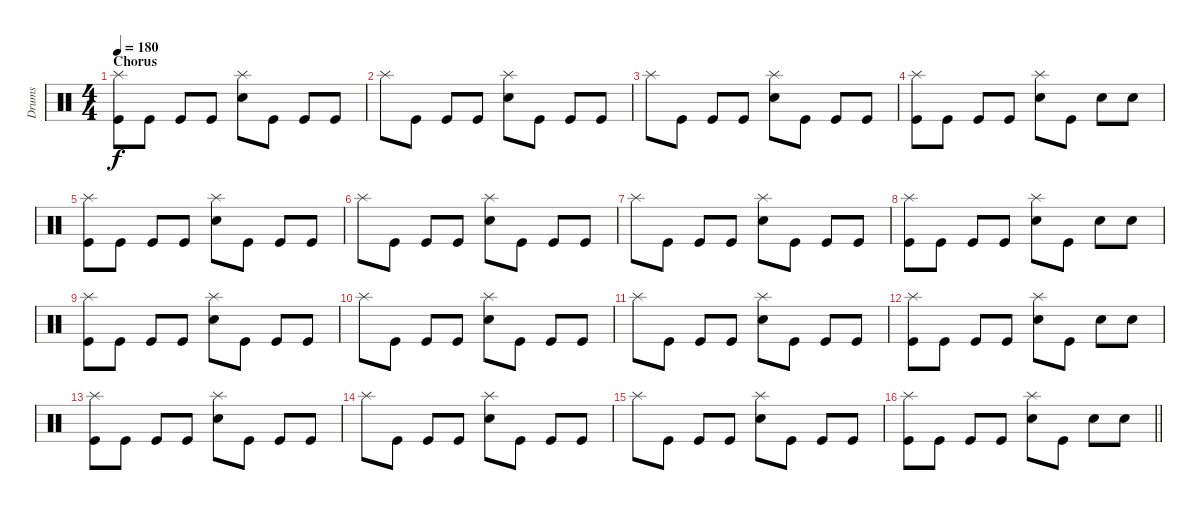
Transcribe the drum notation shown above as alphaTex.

\track ("Drums" "Drums") {instrument percussion}
\staff {score}
\articulation defaults
\ts (4 4)
\section ("" "Chorus")
\tempo 180
\clef neutral
\ks c
("Splash (hit)" "Kick (hit)").8{dy f} "Kick (hit)".8 "Kick (hit)".8 "Kick (hit)".8 ("Splash (hit)" "Snare (hit) 2").8 "Kick (hit)".8 "Kick (hit)".8 "Kick (hit)".8 |
"Splash (hit)".8 "Kick (hit)".8 "Kick (hit)".8 "Kick (hit)".8 ("Splash (hit)" "Snare (hit) 2").8 "Kick (hit)".8 "Kick (hit)".8 "Kick (hit)".8 |
"Splash (hit)".8 "Kick (hit)".8 "Kick (hit)".8 "Kick (hit)".8 ("Splash (hit)" "Snare (hit) 2").8 "Kick (hit)".8 "Kick (hit)".8 "Kick (hit)".8 |
("Splash (hit)" "Kick (hit)").8 "Kick (hit)".8 "Kick (hit)".8 "Kick (hit)".8 ("Splash (hit)" "Snare (hit) 2").8 "Kick (hit)".8 "Snare (hit) 2".8 "Snare (hit) 2".8 |
("Splash (hit)" "Kick (hit)").8 "Kick (hit)".8 "Kick (hit)".8 "Kick (hit)".8 ("Splash (hit)" "Snare (hit) 2").8 "Kick (hit)".8 "Kick (hit)".8 "Kick (hit)".8 |
"Splash (hit)".8 "Kick (hit)".8 "Kick (hit)".8 "Kick (hit)".8 ("Splash (hit)" "Snare (hit) 2").8 "Kick (hit)".8 "Kick (hit)".8 "Kick (hit)".8 |
"Splash (hit)".8 "Kick (hit)".8 "Kick (hit)".8 "Kick (hit)".8 ("Splash (hit)" "Snare (hit) 2").8 "Kick (hit)".8 "Kick (hit)".8 "Kick (hit)".8 |
("Splash (hit)" "Kick (hit)").8 "Kick (hit)".8 "Kick (hit)".8 "Kick (hit)".8 ("Splash (hit)" "Snare (hit) 2").8 "Kick (hit)".8 "Snare (hit) 2".8 "Snare (hit) 2".8 |
("Splash (hit)" "Kick (hit)").8 "Kick (hit)".8 "Kick (hit)".8 "Kick (hit)".8 ("Splash (hit)" "Snare (hit) 2").8 "Kick (hit)".8 "Kick (hit)".8 "Kick (hit)".8 |
"Splash (hit)".8 "Kick (hit)".8 "Kick (hit)".8 "Kick (hit)".8 ("Splash (hit)" "Snare (hit) 2").8 "Kick (hit)".8 "Kick (hit)".8 "Kick (hit)".8 |
"Splash (hit)".8 "Kick (hit)".8 "Kick (hit)".8 "Kick (hit)".8 ("Splash (hit)" "Snare (hit) 2").8 "Kick (hit)".8 "Kick (hit)".8 "Kick (hit)".8 |
("Splash (hit)" "Kick (hit)").8 "Kick (hit)".8 "Kick (hit)".8 "Kick (hit)".8 ("Splash (hit)" "Snare (hit) 2").8 "Kick (hit)".8 "Snare (hit) 2".8 "Snare (hit) 2".8 |
("Splash (hit)" "Kick (hit)").8 "Kick (hit)".8 "Kick (hit)".8 "Kick (hit)".8 ("Splash (hit)" "Snare (hit) 2").8 "Kick (hit)".8 "Kick (hit)".8 "Kick (hit)".8 |
"Splash (hit)".8 "Kick (hit)".8 "Kick (hit)".8 "Kick (hit)".8 ("Splash (hit)" "Snare (hit) 2").8 "Kick (hit)".8 "Kick (hit)".8 "Kick (hit)".8 |
"Splash (hit)".8 "Kick (hit)".8 "Kick (hit)".8 "Kick (hit)".8 ("Splash (hit)" "Snare (hit) 2").8 "Kick (hit)".8 "Kick (hit)".8 "Kick (hit)".8 |
\barLineRight lightlight
("Splash (hit)" "Kick (hit)").8 "Kick (hit)".8 "Kick (hit)".8 "Kick (hit)".8 ("Splash (hit)" "Snare (hit) 2").8 "Kick (hit)".8 "Snare (hit) 2".8 "Snare (hit) 2".8
